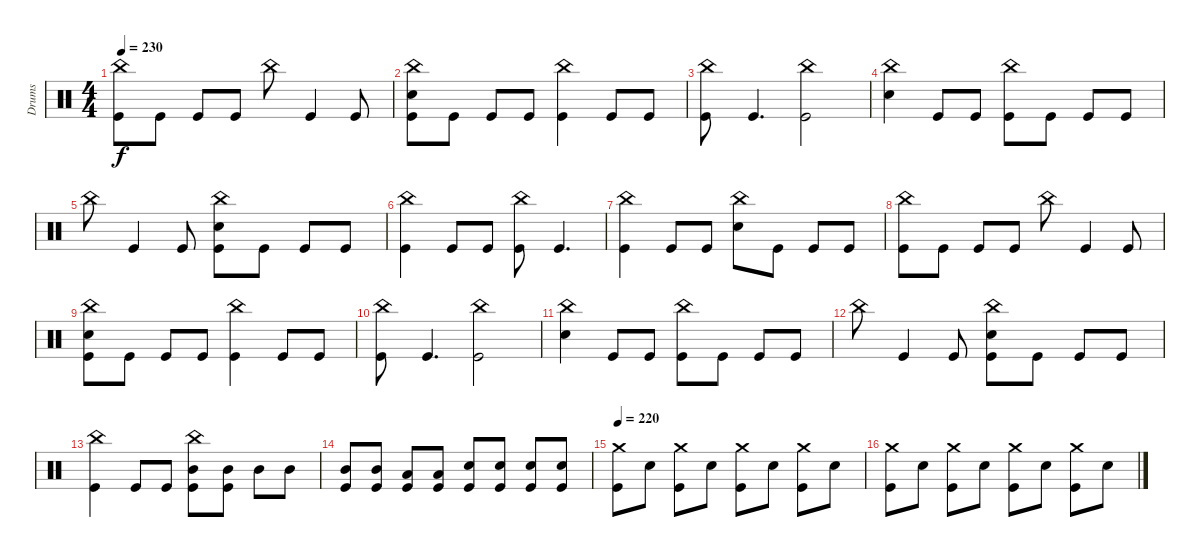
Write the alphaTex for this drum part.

\track ("Drums" "Drums") {instrument percussion}
\staff {score}
\articulation defaults
\ts (4 4)
\tempo 230
\clef neutral
\ks c
("China (hit)" "Kick (hit)").8{dy f} "Kick (hit)".8 "Kick (hit)".8 "Kick (hit)".8 "China (hit)".8 "Kick (hit)".4 "Kick (hit)".8 |
("China (hit)" "Snare (hit) 2" "Kick (hit)").8 "Kick (hit)".8 "Kick (hit)".8 "Kick (hit)".8 ("China (hit)" "Kick (hit)").4 "Kick (hit)".8 "Kick (hit)".8 |
("China (hit)" "Kick (hit)").8 "Kick (hit)".4{d} ("China (hit)" "Kick (hit)").2 |
("China (hit)" "Snare (hit) 2").4 "Kick (hit)".8 "Kick (hit)".8 ("China (hit)" "Kick (hit)").8 "Kick (hit)".8 "Kick (hit)".8 "Kick (hit)".8 |
"China (hit)".8 "Kick (hit)".4 "Kick (hit)".8 ("China (hit)" "Snare (hit) 2" "Kick (hit)").8 "Kick (hit)".8 "Kick (hit)".8 "Kick (hit)".8 |
("China (hit)" "Kick (hit)").4 "Kick (hit)".8 "Kick (hit)".8 ("China (hit)" "Kick (hit)").8 "Kick (hit)".4{d} |
("China (hit)" "Kick (hit)").4 "Kick (hit)".8 "Kick (hit)".8 ("China (hit)" "Snare (hit) 2").8 "Kick (hit)".8 "Kick (hit)".8 "Kick (hit)".8 |
("China (hit)" "Kick (hit)").8 "Kick (hit)".8 "Kick (hit)".8 "Kick (hit)".8 "China (hit)".8 "Kick (hit)".4 "Kick (hit)".8 |
("China (hit)" "Snare (hit) 2" "Kick (hit)").8 "Kick (hit)".8 "Kick (hit)".8 "Kick (hit)".8 ("China (hit)" "Kick (hit)").4 "Kick (hit)".8 "Kick (hit)".8 |
("China (hit)" "Kick (hit)").8 "Kick (hit)".4{d} ("China (hit)" "Kick (hit)").2 |
("China (hit)" "Snare (hit) 2").4 "Kick (hit)".8 "Kick (hit)".8 ("China (hit)" "Kick (hit)").8 "Kick (hit)".8 "Kick (hit)".8 "Kick (hit)".8 |
"China (hit)".8 "Kick (hit)".4 "Kick (hit)".8 ("China (hit)" "Snare (hit) 2" "Kick (hit)").8 "Kick (hit)".8 "Kick (hit)".8 "Kick (hit)".8 |
("China (hit)" "Kick (hit)").4 "Kick (hit)".8 "Kick (hit)".8 ("China (hit)" "Mid Tom (hit)" "Kick (hit)").8 ("Mid Tom (hit)" "Kick (hit)").8 "Mid Tom (hit)".8 "Mid Tom (hit)".8 |
("Mid Tom (hit)" "Kick (hit)").8 ("Mid Tom (hit)" "Kick (hit)").8 ("Low Tom (hit)" "Kick (hit)").8 ("Low Tom (hit)" "Kick (hit)").8 ("Snare (hit) 2" "Kick (hit)").8 ("Snare (hit) 2" "Kick (hit)").8 ("Snare (hit) 2" "Kick (hit)").8 ("Snare (hit) 2" "Kick (hit)").8 |
\tempo 220
("Crash medium (hit)" "Kick (hit)").8 "Snare (hit) 2".8 ("Crash medium (hit)" "Kick (hit)").8 "Snare (hit) 2".8 ("Crash medium (hit)" "Kick (hit)").8 "Snare (hit) 2".8 ("Crash medium (hit)" "Kick (hit)").8 "Snare (hit) 2".8 |
("Crash medium (hit)" "Kick (hit)").8 "Snare (hit) 2".8 ("Crash medium (hit)" "Kick (hit)").8 "Snare (hit) 2".8 ("Crash medium (hit)" "Kick (hit)").8 "Snare (hit) 2".8 ("Crash medium (hit)" "Kick (hit)").8 "Snare (hit) 2".8
